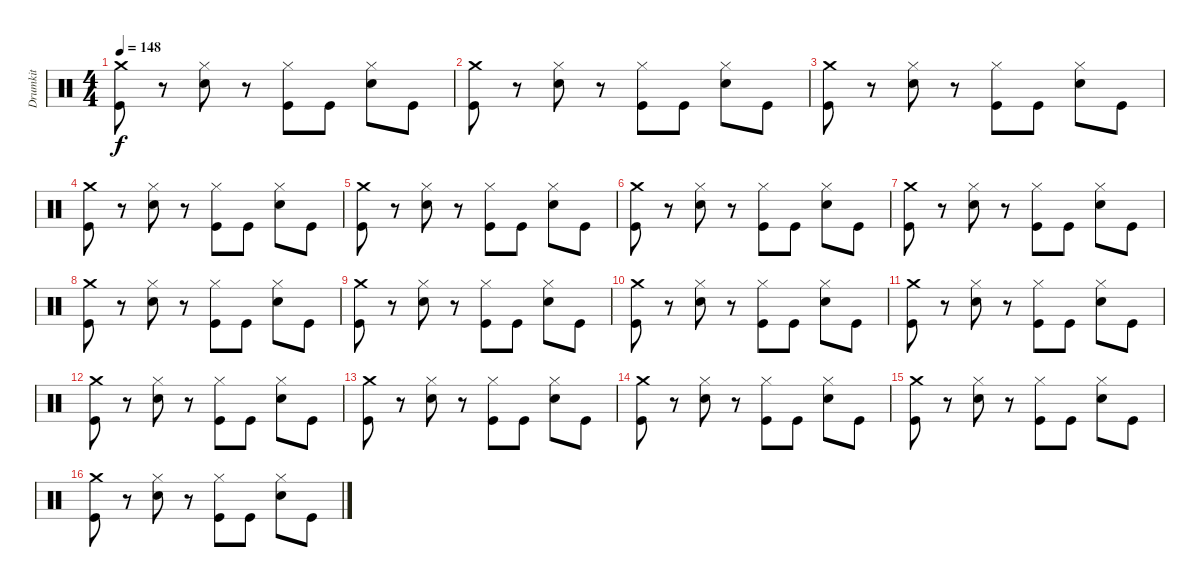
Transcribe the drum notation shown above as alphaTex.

\track ("Drumkit" "Drumkit") {instrument percussion}
\staff {score}
\articulation defaults
\ts (4 4)
\tempo 148
\clef neutral
\ks c
("Crash medium (hit)" "Kick (hit)").8{dy f} r.8 ("Hi-Hat (closed)" "Snare (hit) 2").8 r.8 ("Hi-Hat (closed)" "Kick (hit)").8 "Kick (hit)".8 ("Hi-Hat (closed)" "Snare (hit) 2").8 "Kick (hit)".8 |
("Crash medium (hit)" "Kick (hit)").8 r.8 ("Hi-Hat (closed)" "Snare (hit) 2").8 r.8 ("Hi-Hat (closed)" "Kick (hit)").8 "Kick (hit)".8 ("Hi-Hat (closed)" "Snare (hit) 2").8 "Kick (hit)".8 |
("Crash medium (hit)" "Kick (hit)").8 r.8 ("Hi-Hat (closed)" "Snare (hit) 2").8 r.8 ("Hi-Hat (closed)" "Kick (hit)").8 "Kick (hit)".8 ("Hi-Hat (closed)" "Snare (hit) 2").8 "Kick (hit)".8 |
("Crash medium (hit)" "Kick (hit)").8 r.8 ("Hi-Hat (closed)" "Snare (hit) 2").8 r.8 ("Hi-Hat (closed)" "Kick (hit)").8 "Kick (hit)".8 ("Hi-Hat (closed)" "Snare (hit) 2").8 "Kick (hit)".8 |
("Crash medium (hit)" "Kick (hit)").8 r.8 ("Hi-Hat (closed)" "Snare (hit) 2").8 r.8 ("Hi-Hat (closed)" "Kick (hit)").8 "Kick (hit)".8 ("Hi-Hat (closed)" "Snare (hit) 2").8 "Kick (hit)".8 |
("Crash medium (hit)" "Kick (hit)").8 r.8 ("Hi-Hat (closed)" "Snare (hit) 2").8 r.8 ("Hi-Hat (closed)" "Kick (hit)").8 "Kick (hit)".8 ("Hi-Hat (closed)" "Snare (hit) 2").8 "Kick (hit)".8 |
("Crash medium (hit)" "Kick (hit)").8 r.8 ("Hi-Hat (closed)" "Snare (hit) 2").8 r.8 ("Hi-Hat (closed)" "Kick (hit)").8 "Kick (hit)".8 ("Hi-Hat (closed)" "Snare (hit) 2").8 "Kick (hit)".8 |
("Crash medium (hit)" "Kick (hit)").8 r.8 ("Hi-Hat (closed)" "Snare (hit) 2").8 r.8 ("Hi-Hat (closed)" "Kick (hit)").8 "Kick (hit)".8 ("Hi-Hat (closed)" "Snare (hit) 2").8 "Kick (hit)".8 |
("Crash medium (hit)" "Kick (hit)").8 r.8 ("Hi-Hat (closed)" "Snare (hit) 2").8 r.8 ("Hi-Hat (closed)" "Kick (hit)").8 "Kick (hit)".8 ("Hi-Hat (closed)" "Snare (hit) 2").8 "Kick (hit)".8 |
("Crash medium (hit)" "Kick (hit)").8 r.8 ("Hi-Hat (closed)" "Snare (hit) 2").8 r.8 ("Hi-Hat (closed)" "Kick (hit)").8 "Kick (hit)".8 ("Hi-Hat (closed)" "Snare (hit) 2").8 "Kick (hit)".8 |
("Crash medium (hit)" "Kick (hit)").8 r.8 ("Hi-Hat (closed)" "Snare (hit) 2").8 r.8 ("Hi-Hat (closed)" "Kick (hit)").8 "Kick (hit)".8 ("Hi-Hat (closed)" "Snare (hit) 2").8 "Kick (hit)".8 |
("Crash medium (hit)" "Kick (hit)").8 r.8 ("Hi-Hat (closed)" "Snare (hit) 2").8 r.8 ("Hi-Hat (closed)" "Kick (hit)").8 "Kick (hit)".8 ("Hi-Hat (closed)" "Snare (hit) 2").8 "Kick (hit)".8 |
("Crash medium (hit)" "Kick (hit)").8 r.8 ("Hi-Hat (closed)" "Snare (hit) 2").8 r.8 ("Hi-Hat (closed)" "Kick (hit)").8 "Kick (hit)".8 ("Hi-Hat (closed)" "Snare (hit) 2").8 "Kick (hit)".8 |
("Crash medium (hit)" "Kick (hit)").8 r.8 ("Hi-Hat (closed)" "Snare (hit) 2").8 r.8 ("Hi-Hat (closed)" "Kick (hit)").8 "Kick (hit)".8 ("Hi-Hat (closed)" "Snare (hit) 2").8 "Kick (hit)".8 |
("Crash medium (hit)" "Kick (hit)").8 r.8 ("Hi-Hat (closed)" "Snare (hit) 2").8 r.8 ("Hi-Hat (closed)" "Kick (hit)").8 "Kick (hit)".8 ("Hi-Hat (closed)" "Snare (hit) 2").8 "Kick (hit)".8 |
("Crash medium (hit)" "Kick (hit)").8 r.8 ("Hi-Hat (closed)" "Snare (hit) 2").8 r.8 ("Hi-Hat (closed)" "Kick (hit)").8 "Kick (hit)".8 ("Hi-Hat (closed)" "Snare (hit) 2").8 "Kick (hit)".8
